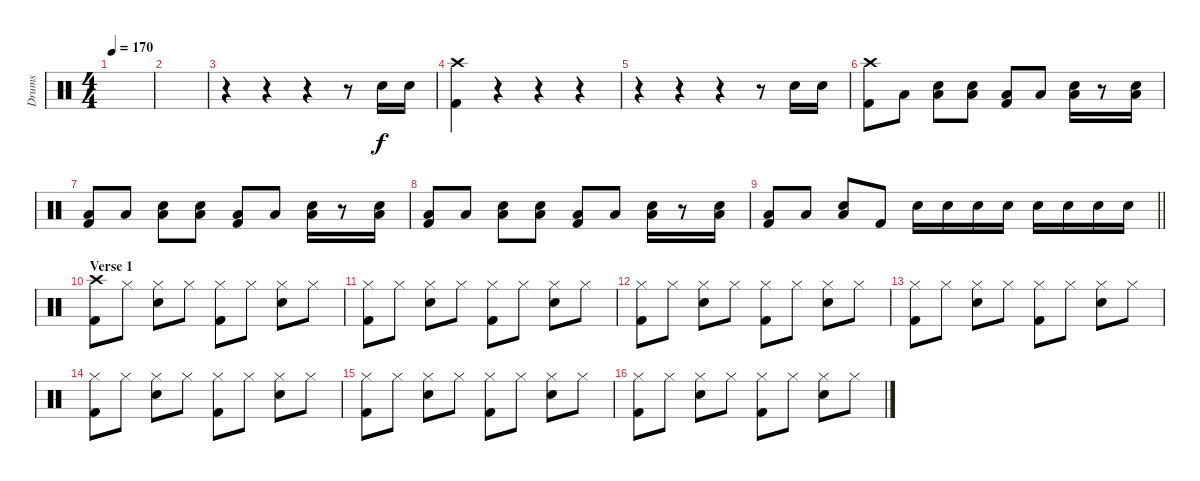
\track ("Drums" "Drums") {instrument percussion}
\staff {score}
\articulation defaults
\ts (4 4)
\tempo 170
\clef neutral
\ks c
|
|
r.4 r.4 r.4 r.8 "Electric Snare (hit)".16 "Electric Snare (hit)".16 |
("Crash high (hit)" "Kick (hit) 2").4 r.4 r.4 r.4 |
r.4 r.4 r.4 r.8 "Electric Snare (hit)".16 "Electric Snare (hit)".16 |
("Crash high (hit)" "Kick (hit) 2").8 "Low Tom (hit)".8 ("Low Tom (hit)" "Electric Snare (hit)").8 ("Low Tom (hit)" "Electric Snare (hit)").8 ("Low Tom (hit)" "Kick (hit) 2").8 "Low Tom (hit)".8 ("Low Tom (hit)" "Electric Snare (hit)").16 r.8 ("Low Tom (hit)" "Electric Snare (hit)").16 |
("Low Tom (hit)" "Kick (hit) 2").8 "Low Tom (hit)".8 ("Low Tom (hit)" "Electric Snare (hit)").8 ("Low Tom (hit)" "Electric Snare (hit)").8 ("Low Tom (hit)" "Kick (hit) 2").8 "Low Tom (hit)".8 ("Low Tom (hit)" "Electric Snare (hit)").16 r.8 ("Low Tom (hit)" "Electric Snare (hit)").16 |
("Low Tom (hit)" "Kick (hit) 2").8 "Low Tom (hit)".8 ("Low Tom (hit)" "Electric Snare (hit)").8 ("Low Tom (hit)" "Electric Snare (hit)").8 ("Low Tom (hit)" "Kick (hit) 2").8 "Low Tom (hit)".8 ("Low Tom (hit)" "Electric Snare (hit)").16 r.8 ("Low Tom (hit)" "Electric Snare (hit)").16 |
\barLineRight lightlight
("Low Tom (hit)" "Kick (hit) 2").8 "Low Tom (hit)".8 ("Low Tom (hit)" "Electric Snare (hit)").8 "Kick (hit) 2".8 "Electric Snare (hit)".16 "Electric Snare (hit)".16 "Electric Snare (hit)".16 "Electric Snare (hit)".16 "Electric Snare (hit)".16 "Electric Snare (hit)".16 "Electric Snare (hit)".16 "Electric Snare (hit)".16 |
\section ("" "Verse 1")
("Crash high (hit)" "Kick (hit) 2").8 "Hi-Hat (closed)".8 ("Hi-Hat (closed)" "Electric Snare (hit)").8 "Hi-Hat (closed)".8 ("Hi-Hat (closed)" "Kick (hit) 2").8 "Hi-Hat (closed)".8 ("Hi-Hat (closed)" "Electric Snare (hit)").8 "Hi-Hat (closed)".8 |
("Hi-Hat (closed)" "Kick (hit) 2").8 "Hi-Hat (closed)".8 ("Hi-Hat (closed)" "Electric Snare (hit)").8 "Hi-Hat (closed)".8 ("Hi-Hat (closed)" "Kick (hit) 2").8 "Hi-Hat (closed)".8 ("Hi-Hat (closed)" "Electric Snare (hit)").8 "Hi-Hat (closed)".8 |
("Hi-Hat (closed)" "Kick (hit) 2").8 "Hi-Hat (closed)".8 ("Hi-Hat (closed)" "Electric Snare (hit)").8 "Hi-Hat (closed)".8 ("Hi-Hat (closed)" "Kick (hit) 2").8 "Hi-Hat (closed)".8 ("Hi-Hat (closed)" "Electric Snare (hit)").8 "Hi-Hat (closed)".8 |
("Hi-Hat (closed)" "Kick (hit) 2").8 "Hi-Hat (closed)".8 ("Hi-Hat (closed)" "Electric Snare (hit)").8 "Hi-Hat (closed)".8 ("Hi-Hat (closed)" "Kick (hit) 2").8 "Hi-Hat (closed)".8 ("Hi-Hat (closed)" "Electric Snare (hit)").8 "Hi-Hat (closed)".8 |
("Hi-Hat (closed)" "Kick (hit) 2").8 "Hi-Hat (closed)".8 ("Hi-Hat (closed)" "Electric Snare (hit)").8 "Hi-Hat (closed)".8 ("Hi-Hat (closed)" "Kick (hit) 2").8 "Hi-Hat (closed)".8 ("Hi-Hat (closed)" "Electric Snare (hit)").8 "Hi-Hat (closed)".8 |
("Hi-Hat (closed)" "Kick (hit) 2").8 "Hi-Hat (closed)".8 ("Hi-Hat (closed)" "Electric Snare (hit)").8 "Hi-Hat (closed)".8 ("Hi-Hat (closed)" "Kick (hit) 2").8 "Hi-Hat (closed)".8 ("Hi-Hat (closed)" "Electric Snare (hit)").8 "Hi-Hat (closed)".8 |
("Hi-Hat (closed)" "Kick (hit) 2").8 "Hi-Hat (closed)".8 ("Hi-Hat (closed)" "Electric Snare (hit)").8 "Hi-Hat (closed)".8 ("Hi-Hat (closed)" "Kick (hit) 2").8 "Hi-Hat (closed)".8 ("Hi-Hat (closed)" "Electric Snare (hit)").8 "Hi-Hat (closed)".8
